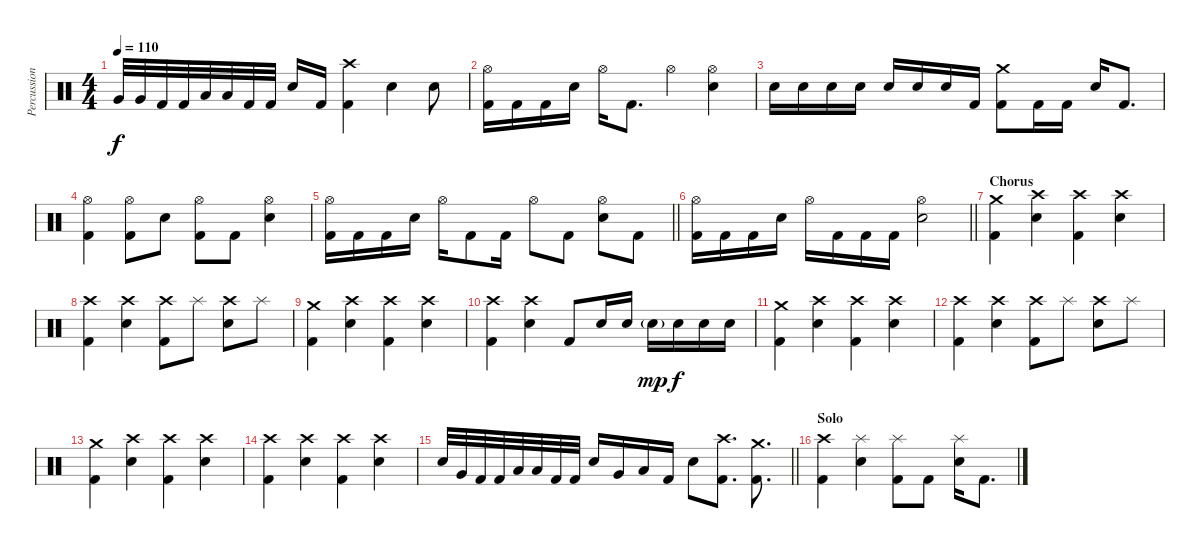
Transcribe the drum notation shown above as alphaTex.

\track ("Percussions" "Percussion") {instrument percussion}
\staff {score}
\articulation defaults
\ts (4 4)
\tempo 110
\clef neutral
\ks c "Very Low Tom (hit)".32{dy f} "Very Low Tom (hit)".32 "Kick (hit) 2".32 "Kick (hit) 2".32 "Low Floor Tom (hit)".32 "Low Floor Tom (hit)".32 "Kick (hit) 2".32 "Kick (hit) 2".32 "Electric Snare (hit)".16 "Kick (hit) 2".16
("Crash high (hit)" "Kick (hit) 2").4 "Electric Snare (hit)".4 "Electric Snare (hit)".8 |
("Hi-Hat (open)" "Kick (hit) 2").16 "Kick (hit) 2".16 "Kick (hit) 2".16 "Electric Snare (hit)".16 "Hi-Hat (open)".16 "Kick (hit) 2".8{d} "Hi-Hat (open)".4 ("Hi-Hat (open)" "Electric Snare (hit)").4 |
"Electric Snare (hit)".16 "Electric Snare (hit)".16 "Electric Snare (hit)".16 "Electric Snare (hit)".16 "Electric Snare (hit)".16 "Electric Snare (hit)".16 "Electric Snare (hit)".16 "Kick (hit) 2".16 ("Crash medium (hit)" "Kick (hit) 2").8 "Kick (hit) 2".16 "Kick (hit) 2".16 "Electric Snare (hit)".16 "Kick (hit) 2".8{d} |
("Hi-Hat (open)" "Kick (hit) 2").4 ("Hi-Hat (open)" "Kick (hit) 2").8 "Electric Snare (hit)".8 ("Hi-Hat (open)" "Kick (hit) 2").8 "Kick (hit) 2".8 ("Hi-Hat (open)" "Electric Snare (hit)").4 |
\barLineRight lightlight
("Hi-Hat (open)" "Kick (hit) 2").16 "Kick (hit) 2".16 "Kick (hit) 2".16 "Electric Snare (hit)".16 "Hi-Hat (open)".16 "Kick (hit) 2".8 "Kick (hit) 2".16 "Hi-Hat (open)".8 "Kick (hit) 2".8 ("Hi-Hat (open)" "Electric Snare (hit)").8 "Kick (hit) 2".8 |
\barLineRight lightlight
("Hi-Hat (open)" "Kick (hit) 2").16 "Kick (hit) 2".16 "Kick (hit) 2".16 "Electric Snare (hit)".16 "Hi-Hat (open)".16 "Kick (hit) 2".16 "Kick (hit) 2".16 "Kick (hit) 2".16 ("Hi-Hat (open)" "Electric Snare (hit)").2 |
\section ("" "Chorus")
("Crash medium (hit)" "Kick (hit) 2").4 ("Crash high (hit)" "Electric Snare (hit)").4 ("Crash high (hit)" "Kick (hit) 2").4 ("Crash high (hit)" "Electric Snare (hit)").4 |
("Crash high (hit)" "Kick (hit) 2").4 ("Crash high (hit)" "Electric Snare (hit)").4 ("Crash high (hit)" "Kick (hit) 2").8 "Splash (hit)".8 ("Crash high (hit)" "Electric Snare (hit)").8 "Splash (hit)".8 |
("Crash medium (hit)" "Kick (hit) 2").4 ("Crash high (hit)" "Electric Snare (hit)").4 ("Crash high (hit)" "Kick (hit) 2").4 ("Crash high (hit)" "Electric Snare (hit)").4 |
("Crash high (hit)" "Kick (hit) 2").4 ("Crash high (hit)" "Electric Snare (hit)").4 "Kick (hit) 2".8 "Electric Snare (hit)".16 "Electric Snare (hit)".16 "Electric Snare (hit)"{g}.16{dy mp} "Electric Snare (hit)".16{dy f} "Electric Snare (hit)".16 "Electric Snare (hit)".16 |
("Crash medium (hit)" "Kick (hit) 2").4 ("Crash high (hit)" "Electric Snare (hit)").4 ("Crash high (hit)" "Kick (hit) 2").4 ("Crash high (hit)" "Electric Snare (hit)").4 |
("Crash high (hit)" "Kick (hit) 2").4 ("Crash high (hit)" "Electric Snare (hit)").4 ("Crash high (hit)" "Kick (hit) 2").8 "Splash (hit)".8 ("Crash high (hit)" "Electric Snare (hit)").8 "Splash (hit)".8 |
("Crash medium (hit)" "Kick (hit) 2").4 ("Crash high (hit)" "Electric Snare (hit)").4 ("Crash high (hit)" "Kick (hit) 2").4 ("Crash high (hit)" "Electric Snare (hit)").4 |
("Crash high (hit)" "Kick (hit) 2").4 ("Crash high (hit)" "Electric Snare (hit)").4 ("Crash high (hit)" "Kick (hit) 2").4 ("Crash high (hit)" "Electric Snare (hit)").4 |
\barLineRight lightlight "Electric Snare (hit)".32 "Very Low Tom (hit)".32 "Kick (hit) 2".32 "Kick (hit) 2".32 "Low Floor Tom (hit)".32 "Low Floor Tom (hit)".32 "Kick (hit) 2".32 "Kick (hit) 2".32 "Electric Snare (hit)".16 "Very Low Tom (hit)".16 "Low Floor Tom (hit)".16 "Kick (hit) 2".16 "Electric Snare (hit)".8
("Crash high (hit)" "Kick (hit) 2").8{d} ("Crash medium (hit)" "Kick (hit) 2").8{d} |
\section ("" "Solo")
("Crash high (hit)" "Kick (hit) 2").4 ("Splash (hit)" "Electric Snare (hit)").4 ("Splash (hit)" "Kick (hit) 2").8 "Kick (hit) 2".8 ("Splash (hit)" "Electric Snare (hit)").16 "Kick (hit) 2".8{d}
